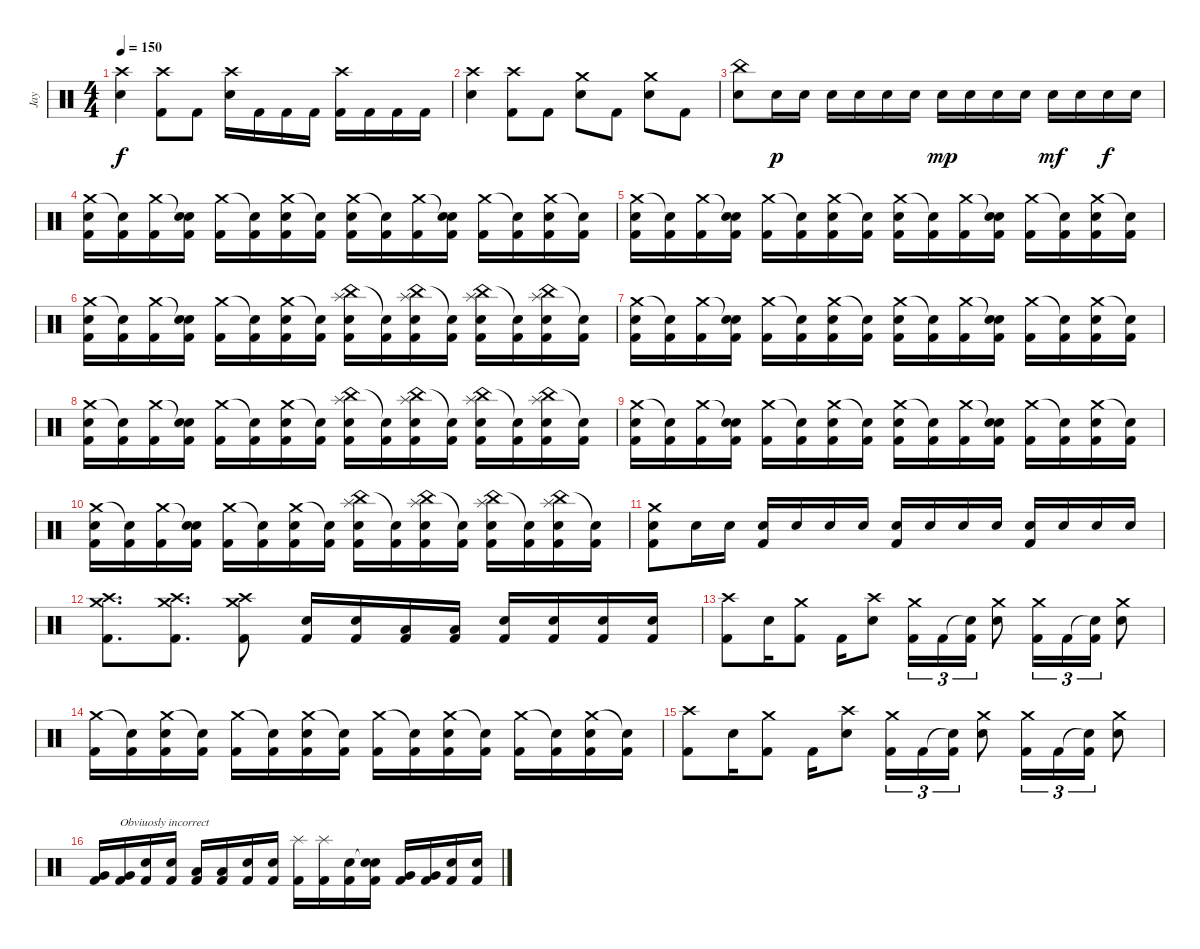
\track ("Jay" "Jay") {instrument percussion}
\staff {score}
\articulation defaults
\ts (4 4)
\tempo 150
\clef neutral
\ks c
("Crash high (hit)" "Electric Snare (hit)").4{dy f} ("Crash high (hit)" "Kick (hit) 2").8 "Kick (hit) 2".8 ("Crash high (hit)" "Electric Snare (hit)").16 "Kick (hit) 2".16 "Kick (hit) 2".16 "Kick (hit) 2".16 ("Crash high (hit)" "Kick (hit) 2").16 "Kick (hit) 2".16 "Kick (hit) 2".16 "Kick (hit) 2".16 |
("Crash high (hit)" "Electric Snare (hit)").4 ("Crash high (hit)" "Kick (hit) 2").8 "Kick (hit) 2".8 ("Crash medium (hit)" "Electric Snare (hit)").8 "Kick (hit) 2".8 ("Crash medium (hit)" "Electric Snare (hit)").8 "Kick (hit) 2".8 |
("China (hit)" "Electric Snare (hit)").8 "Electric Snare (hit)".16{dy p} "Electric Snare (hit)".16 "Electric Snare (hit)".16 "Electric Snare (hit)".16 "Electric Snare (hit)".16 "Electric Snare (hit)".16 "Electric Snare (hit)".16{dy mp} "Electric Snare (hit)".16 "Electric Snare (hit)".16 "Electric Snare (hit)".16 "Electric Snare (hit)".16{dy mf} "Electric Snare (hit)".16 "Electric Snare (hit)".16{dy f} "Electric Snare (hit)".16 |
("Crash medium (hit)" "Electric Snare (hit)" "Kick (hit) 2").16 ("Snare (hit)"{t} "Kick (hit) 2").16 ("Crash medium (hit)" "Kick (hit) 2").16 ("Snare (hit)"{t} "Electric Snare (hit)" "Kick (hit) 2").16 ("Crash medium (hit)" "Kick (hit) 2").16 ("Snare (hit)"{t} "Kick (hit) 2").16 ("Crash medium (hit)" "Electric Snare (hit)" "Kick (hit) 2").16 ("Snare (hit)"{t} "Kick (hit) 2").16 ("Crash medium (hit)" "Electric Snare (hit)" "Kick (hit) 2").16 ("Snare (hit)"{t} "Kick (hit) 2").16 ("Crash medium (hit)" "Kick (hit) 2").16 ("Snare (hit)"{t} "Electric Snare (hit)" "Kick (hit) 2").16 ("Crash medium (hit)" "Kick (hit) 2").16 ("Snare (hit)"{t} "Kick (hit) 2").16 ("Crash medium (hit)" "Electric Snare (hit)" "Kick (hit) 2").16 ("Snare (hit)"{t} "Kick (hit) 2").16 |
("Crash medium (hit)" "Electric Snare (hit)" "Kick (hit) 2").16 ("Snare (hit)"{t} "Kick (hit) 2").16 ("Crash medium (hit)" "Kick (hit) 2").16 ("Snare (hit)"{t} "Electric Snare (hit)" "Kick (hit) 2").16 ("Crash medium (hit)" "Kick (hit) 2").16 ("Snare (hit)"{t} "Kick (hit) 2").16 ("Crash medium (hit)" "Electric Snare (hit)" "Kick (hit) 2").16 ("Snare (hit)"{t} "Kick (hit) 2").16 ("Crash medium (hit)" "Electric Snare (hit)" "Kick (hit) 2").16 ("Snare (hit)"{t} "Kick (hit) 2").16 ("Crash medium (hit)" "Kick (hit) 2").16 ("Snare (hit)"{t} "Electric Snare (hit)" "Kick (hit) 2").16 ("Crash medium (hit)" "Kick (hit) 2").16 ("Snare (hit)"{t} "Kick (hit) 2").16 ("Crash medium (hit)" "Electric Snare (hit)" "Kick (hit) 2").16 ("Snare (hit)"{t} "Kick (hit) 2").16 |
("Crash medium (hit)" "Electric Snare (hit)" "Kick (hit) 2").16 ("Snare (hit)"{t} "Kick (hit) 2").16 ("Crash medium (hit)" "Kick (hit) 2").16 ("Snare (hit)"{t} "Electric Snare (hit)" "Kick (hit) 2").16 ("Crash medium (hit)" "Kick (hit) 2").16 ("Snare (hit)"{t} "Kick (hit) 2").16 ("Crash medium (hit)" "Electric Snare (hit)" "Kick (hit) 2").16 ("Snare (hit)"{t} "Kick (hit) 2").16 ("China (hit)" "Splash (hit)" "Electric Snare (hit)" "Kick (hit) 2").16 ("Snare (hit)"{t} "Kick (hit) 2").16 ("China (hit)" "Splash (hit)" "Electric Snare (hit)" "Kick (hit) 2").16 ("Snare (hit)"{t} "Kick (hit) 2").16 ("China (hit)" "Splash (hit)" "Electric Snare (hit)" "Kick (hit) 2").16 ("Snare (hit)"{t} "Kick (hit) 2").16 ("China (hit)" "Splash (hit)" "Electric Snare (hit)" "Kick (hit) 2").16 ("Snare (hit)"{t} "Kick (hit) 2").16 |
("Crash medium (hit)" "Electric Snare (hit)" "Kick (hit) 2").16 ("Snare (hit)"{t} "Kick (hit) 2").16 ("Crash medium (hit)" "Kick (hit) 2").16 ("Snare (hit)"{t} "Electric Snare (hit)" "Kick (hit) 2").16 ("Crash medium (hit)" "Kick (hit) 2").16 ("Snare (hit)"{t} "Kick (hit) 2").16 ("Crash medium (hit)" "Electric Snare (hit)" "Kick (hit) 2").16 ("Snare (hit)"{t} "Kick (hit) 2").16 ("Crash medium (hit)" "Electric Snare (hit)" "Kick (hit) 2").16 ("Snare (hit)"{t} "Kick (hit) 2").16 ("Crash medium (hit)" "Kick (hit) 2").16 ("Snare (hit)"{t} "Electric Snare (hit)" "Kick (hit) 2").16 ("Crash medium (hit)" "Kick (hit) 2").16 ("Snare (hit)"{t} "Kick (hit) 2").16 ("Crash medium (hit)" "Electric Snare (hit)" "Kick (hit) 2").16 ("Snare (hit)"{t} "Kick (hit) 2").16 |
("Crash medium (hit)" "Electric Snare (hit)" "Kick (hit) 2").16 ("Snare (hit)"{t} "Kick (hit) 2").16 ("Crash medium (hit)" "Kick (hit) 2").16 ("Snare (hit)"{t} "Electric Snare (hit)" "Kick (hit) 2").16 ("Crash medium (hit)" "Kick (hit) 2").16 ("Snare (hit)"{t} "Kick (hit) 2").16 ("Crash medium (hit)" "Electric Snare (hit)" "Kick (hit) 2").16 ("Snare (hit)"{t} "Kick (hit) 2").16 ("China (hit)" "Splash (hit)" "Electric Snare (hit)" "Kick (hit) 2").16 ("Snare (hit)"{t} "Kick (hit) 2").16 ("China (hit)" "Splash (hit)" "Electric Snare (hit)" "Kick (hit) 2").16 ("Snare (hit)"{t} "Kick (hit) 2").16 ("China (hit)" "Splash (hit)" "Electric Snare (hit)" "Kick (hit) 2").16 ("Snare (hit)"{t} "Kick (hit) 2").16 ("China (hit)" "Splash (hit)" "Electric Snare (hit)" "Kick (hit) 2").16 ("Snare (hit)"{t} "Kick (hit) 2").16 |
("Crash medium (hit)" "Electric Snare (hit)" "Kick (hit) 2").16 ("Snare (hit)"{t} "Kick (hit) 2").16 ("Crash medium (hit)" "Kick (hit) 2").16 ("Snare (hit)"{t} "Electric Snare (hit)" "Kick (hit) 2").16 ("Crash medium (hit)" "Kick (hit) 2").16 ("Snare (hit)"{t} "Kick (hit) 2").16 ("Crash medium (hit)" "Electric Snare (hit)" "Kick (hit) 2").16 ("Snare (hit)"{t} "Kick (hit) 2").16 ("Crash medium (hit)" "Electric Snare (hit)" "Kick (hit) 2").16 ("Snare (hit)"{t} "Kick (hit) 2").16 ("Crash medium (hit)" "Kick (hit) 2").16 ("Snare (hit)"{t} "Electric Snare (hit)" "Kick (hit) 2").16 ("Crash medium (hit)" "Kick (hit) 2").16 ("Snare (hit)"{t} "Kick (hit) 2").16 ("Crash medium (hit)" "Electric Snare (hit)" "Kick (hit) 2").16 ("Snare (hit)"{t} "Kick (hit) 2").16 |
("Crash medium (hit)" "Electric Snare (hit)" "Kick (hit) 2").16 ("Snare (hit)"{t} "Kick (hit) 2").16 ("Crash medium (hit)" "Kick (hit) 2").16 ("Snare (hit)"{t} "Electric Snare (hit)" "Kick (hit) 2").16 ("Crash medium (hit)" "Kick (hit) 2").16 ("Snare (hit)"{t} "Kick (hit) 2").16 ("Crash medium (hit)" "Electric Snare (hit)" "Kick (hit) 2").16 ("Snare (hit)"{t} "Kick (hit) 2").16 ("China (hit)" "Splash (hit)" "Electric Snare (hit)" "Kick (hit) 2").16 ("Snare (hit)"{t} "Kick (hit) 2").16 ("China (hit)" "Splash (hit)" "Electric Snare (hit)" "Kick (hit) 2").16 ("Snare (hit)"{t} "Kick (hit) 2").16 ("China (hit)" "Splash (hit)" "Electric Snare (hit)" "Kick (hit) 2").16 ("Snare (hit)"{t} "Kick (hit) 2").16 ("China (hit)" "Splash (hit)" "Electric Snare (hit)" "Kick (hit) 2").16 ("Snare (hit)"{t} "Kick (hit) 2").16 |
("Crash medium (hit)" "Electric Snare (hit)" "Kick (hit) 2").8 "Electric Snare (hit)".16 "Electric Snare (hit)".16 ("Electric Snare (hit)" "Kick (hit) 2").16 "Electric Snare (hit)".16 "Electric Snare (hit)".16 "Electric Snare (hit)".16 ("Electric Snare (hit)" "Kick (hit) 2").16 "Electric Snare (hit)".16 "Electric Snare (hit)".16 "Electric Snare (hit)".16 ("Electric Snare (hit)" "Kick (hit) 2").16 "Electric Snare (hit)".16 "Electric Snare (hit)".16 "Electric Snare (hit)".16 |
("Crash high (hit)" "Crash medium (hit)" "Kick (hit) 2").8{d} ("Crash medium (hit)" "Crash high (hit)" "Kick (hit) 2").8{d} ("Crash high (hit)" "Crash medium (hit)" "Kick (hit) 2").8 ("Electric Snare (hit)" "Kick (hit) 2").16 ("Electric Snare (hit)" "Kick (hit) 2").16 ("Low Tom (hit)" "Kick (hit) 2").16 ("Low Tom (hit)" "Kick (hit) 2").16 ("Electric Snare (hit)" "Kick (hit) 2").16 ("Electric Snare (hit)" "Kick (hit) 2").16 ("Electric Snare (hit)" "Kick (hit) 2").16 ("Electric Snare (hit)" "Kick (hit) 2").16 |
("Crash high (hit)" "Kick (hit) 2").8 "Electric Snare (hit)".16 ("Crash medium (hit)" "Kick (hit) 2").8 "Kick (hit) 2".16 ("Crash high (hit)" "Electric Snare (hit)").8 ("Crash medium (hit)" "Kick (hit) 2").16{tu (3 2)} "Kick (hit) 2".16{tu (3 2)} ("Snare (hit)"{t} "Kick (hit) 2").16{tu (3 2)} ("Crash medium (hit)" "Electric Snare (hit)").8 ("Crash medium (hit)" "Kick (hit) 2").16{tu (3 2)} "Kick (hit) 2".16{tu (3 2)} ("Snare (hit)"{t} "Kick (hit) 2").16{tu (3 2)} ("Crash medium (hit)" "Electric Snare (hit)").8 |
("Crash medium (hit)" "Kick (hit) 2").16 ("Snare (hit)"{t} "Kick (hit) 2").16 ("Crash medium (hit)" "Electric Snare (hit)" "Kick (hit) 2").16 ("Snare (hit)"{t} "Kick (hit) 2").16 ("Crash medium (hit)" "Kick (hit) 2").16 ("Snare (hit)"{t} "Kick (hit) 2").16 ("Crash medium (hit)" "Electric Snare (hit)" "Kick (hit) 2").16 ("Snare (hit)"{t} "Kick (hit) 2").16 ("Crash medium (hit)" "Kick (hit) 2").16 ("Snare (hit)"{t} "Kick (hit) 2").16 ("Crash medium (hit)" "Electric Snare (hit)" "Kick (hit) 2").16 ("Snare (hit)"{t} "Kick (hit) 2").16 ("Crash medium (hit)" "Kick (hit) 2").16 ("Snare (hit)"{t} "Kick (hit) 2").16 ("Crash medium (hit)" "Electric Snare (hit)" "Kick (hit) 2").16 ("Snare (hit)"{t} "Kick (hit) 2").16 |
("Crash high (hit)" "Kick (hit) 2").8 "Electric Snare (hit)".16 ("Crash medium (hit)" "Kick (hit) 2").8 "Kick (hit) 2".16 ("Crash high (hit)" "Electric Snare (hit)").8 ("Crash medium (hit)" "Kick (hit) 2").16{tu (3 2)} "Kick (hit) 2".16{tu (3 2)} ("Snare (hit)"{t} "Kick (hit) 2").16{tu (3 2)} ("Crash medium (hit)" "Electric Snare (hit)").8 ("Crash medium (hit)" "Kick (hit) 2").16{tu (3 2)} "Kick (hit) 2".16{tu (3 2)} ("Snare (hit)"{t} "Kick (hit) 2").16{tu (3 2)} ("Crash medium (hit)" "Electric Snare (hit)").8 |
("Very Low Tom (hit)" "Kick (hit) 2").16 ("Very Low Tom (hit)" "Kick (hit) 2").16{txt "Obviuosly incorrect"} ("Electric Snare (hit)" "Kick (hit) 2").16 ("Electric Snare (hit)" "Kick (hit) 2").16 ("Low Tom (hit)" "Kick (hit) 2").16 ("Low Tom (hit)" "Kick (hit) 2").16 ("Electric Snare (hit)" "Kick (hit) 2").16 ("Electric Snare (hit)" "Kick (hit) 2").16 ("Splash (hit)" "Kick (hit) 2").16 ("Splash (hit)" "Kick (hit) 2").16 ("Electric Snare (hit)" "Kick (hit) 2").16 ("Snare (hit)"{t} "Electric Snare (hit)" "Kick (hit) 2").16 ("Very Low Tom (hit)" "Kick (hit) 2").16 ("Very Low Tom (hit)" "Kick (hit) 2").16 ("Electric Snare (hit)" "Kick (hit) 2").16 ("Electric Snare (hit)" "Kick (hit) 2").16
